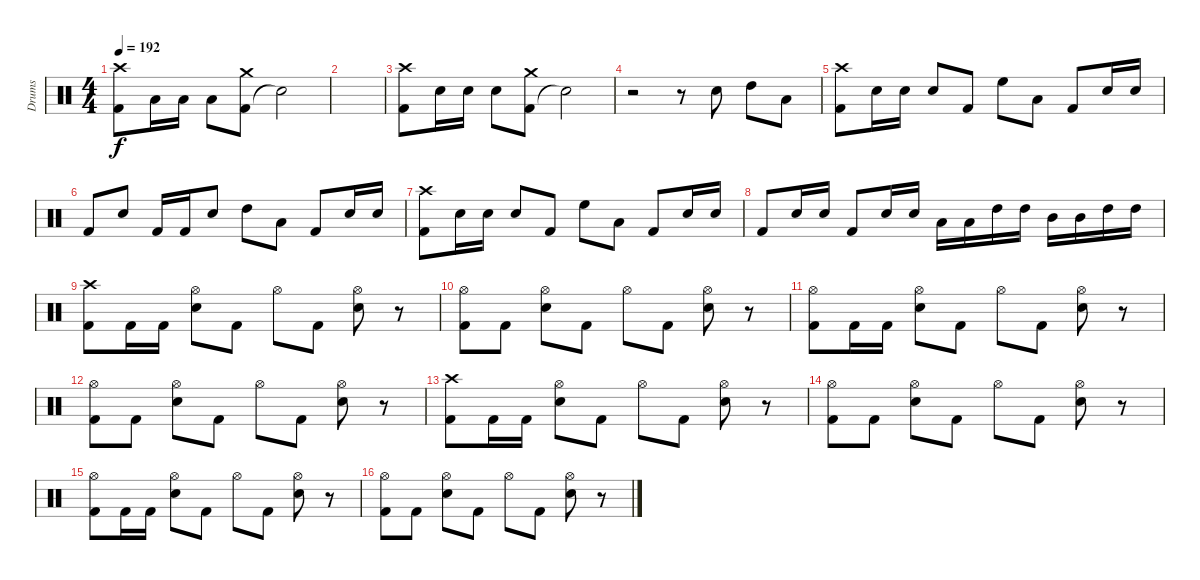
\track ("Drums" "Drums") {instrument percussion}
\staff {score}
\articulation defaults
\ts (4 4)
\tempo 192
\clef neutral
\ks c
("Kick (hit) 2" "Crash high (hit)").8{dy f} "Low Tom (hit)".16 "Low Tom (hit)".16 "Low Tom (hit)".8 ("Kick (hit) 2" "Crash medium (hit)").8 "Snare (hit)"{t}.2 |
|
("Kick (hit) 2" "Crash high (hit)").8 "Snare (hit) 2".16 "Snare (hit) 2".16 "Snare (hit) 2".8 ("Kick (hit) 2" "Crash medium (hit)").8 "Snare (hit)"{t}.2 |
r.2 r.8 "Snare (hit) 2".8 "High Tom (hit)".8 "Low Tom (hit)".8 |
("Kick (hit) 2" "Crash high (hit)").8 "Snare (hit) 2".16 "Snare (hit) 2".16 "Snare (hit) 2".8 "Kick (hit) 2".8 "High Floor Tom (hit)".8 "Low Floor Tom (hit)".8 "Kick (hit) 2".8 "Snare (hit) 2".16 "Snare (hit) 2".16 |
"Kick (hit) 2".8 "Snare (hit) 2".8 "Kick (hit) 2".16 "Kick (hit) 2".16 "Snare (hit) 2".8 "High Tom (hit)".8 "Low Tom (hit)".8 "Kick (hit) 2".8 "Snare (hit) 2".16 "Snare (hit) 2".16 |
("Kick (hit) 2" "Crash high (hit)").8 "Snare (hit) 2".16 "Snare (hit) 2".16 "Snare (hit) 2".8 "Kick (hit) 2".8 "High Floor Tom (hit)".8 "Low Floor Tom (hit)".8 "Kick (hit) 2".8 "Snare (hit) 2".16 "Snare (hit) 2".16 |
"Kick (hit) 2".8 "Snare (hit) 2".16 "Snare (hit) 2".16 "Kick (hit) 2".8 "Snare (hit) 2".16 "Snare (hit) 2".16 "Low Tom (hit)".16 "Low Tom (hit)".16 "High Tom (hit)".16 "High Tom (hit)".16 "Mid Tom (hit)".16 "Mid Tom (hit)".16 "High Tom (hit)".16 "High Tom (hit)".16 |
("Kick (hit) 2" "Crash high (hit)").8 "Kick (hit) 2".16 "Kick (hit) 2".16 ("Snare (hit) 2" "Hi-Hat (open)").8 "Kick (hit) 2".8 "Hi-Hat (open)".8 "Kick (hit) 2".8 ("Snare (hit) 2" "Hi-Hat (open)").8 r.8 |
("Kick (hit) 2" "Hi-Hat (open)").8 "Kick (hit) 2".8 ("Snare (hit) 2" "Hi-Hat (open)").8 "Kick (hit) 2".8 "Hi-Hat (open)".8 "Kick (hit) 2".8 ("Snare (hit) 2" "Hi-Hat (open)").8 r.8 |
("Kick (hit) 2" "Hi-Hat (open)").8 "Kick (hit) 2".16 "Kick (hit) 2".16 ("Snare (hit) 2" "Hi-Hat (open)").8 "Kick (hit) 2".8 "Hi-Hat (open)".8 "Kick (hit) 2".8 ("Snare (hit) 2" "Hi-Hat (open)").8 r.8 |
("Kick (hit) 2" "Hi-Hat (open)").8 "Kick (hit) 2".8 ("Snare (hit) 2" "Hi-Hat (open)").8 "Kick (hit) 2".8 "Hi-Hat (open)".8 "Kick (hit) 2".8 ("Snare (hit) 2" "Hi-Hat (open)").8 r.8 |
("Kick (hit) 2" "Crash high (hit)").8 "Kick (hit) 2".16 "Kick (hit) 2".16 ("Snare (hit) 2" "Hi-Hat (open)").8 "Kick (hit) 2".8 "Hi-Hat (open)".8 "Kick (hit) 2".8 ("Snare (hit) 2" "Hi-Hat (open)").8 r.8 |
("Kick (hit) 2" "Hi-Hat (open)").8 "Kick (hit) 2".8 ("Snare (hit) 2" "Hi-Hat (open)").8 "Kick (hit) 2".8 "Hi-Hat (open)".8 "Kick (hit) 2".8 ("Snare (hit) 2" "Hi-Hat (open)").8 r.8 |
("Kick (hit) 2" "Hi-Hat (open)").8 "Kick (hit) 2".16 "Kick (hit) 2".16 ("Snare (hit) 2" "Hi-Hat (open)").8 "Kick (hit) 2".8 "Hi-Hat (open)".8 "Kick (hit) 2".8 ("Snare (hit) 2" "Hi-Hat (open)").8 r.8 |
("Kick (hit) 2" "Hi-Hat (open)").8 "Kick (hit) 2".8 ("Snare (hit) 2" "Hi-Hat (open)").8 "Kick (hit) 2".8 "Hi-Hat (open)".8 "Kick (hit) 2".8 ("Snare (hit) 2" "Hi-Hat (open)").8 r.8
